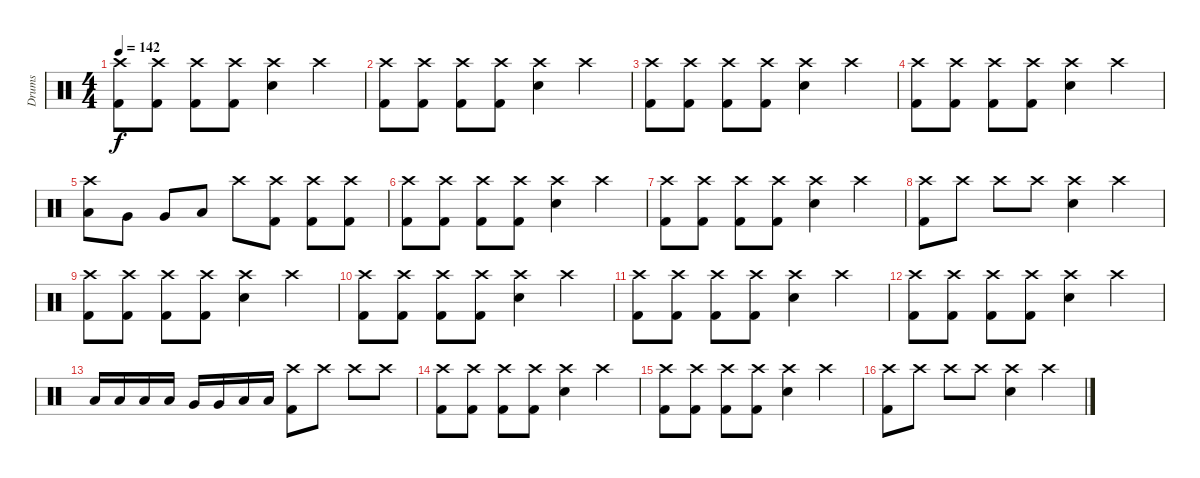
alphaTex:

\track ("Drums" "Drums") {instrument percussion}
\staff {score}
\articulation defaults
\ts (4 4)
\tempo 142
\clef neutral
\ks c
("Crash high (hit)" "Kick (hit) 2").8{dy f} ("Crash high (hit)" "Kick (hit) 2").8 ("Crash high (hit)" "Kick (hit) 2").8 ("Crash high (hit)" "Kick (hit) 2").8 ("Crash high (hit)" "Snare (hit) 2").4 "Crash high (hit)".4 |
("Crash high (hit)" "Kick (hit) 2").8 ("Crash high (hit)" "Kick (hit) 2").8 ("Crash high (hit)" "Kick (hit) 2").8 ("Crash high (hit)" "Kick (hit) 2").8 ("Crash high (hit)" "Snare (hit) 2").4 "Crash high (hit)".4 |
("Crash high (hit)" "Kick (hit) 2").8 ("Crash high (hit)" "Kick (hit) 2").8 ("Crash high (hit)" "Kick (hit) 2").8 ("Crash high (hit)" "Kick (hit) 2").8 ("Crash high (hit)" "Snare (hit) 2").4 "Crash high (hit)".4 |
("Crash high (hit)" "Kick (hit) 2").8 ("Crash high (hit)" "Kick (hit) 2").8 ("Crash high (hit)" "Kick (hit) 2").8 ("Crash high (hit)" "Kick (hit) 2").8 ("Crash high (hit)" "Snare (hit) 2").4 "Crash high (hit)".4 |
("Crash high (hit)" "Low Tom (hit)").8 "Very Low Tom (hit)".8 "Very Low Tom (hit)".8 "Low Floor Tom (hit)".8 "Crash high (hit)".8 ("Crash high (hit)" "Kick (hit) 2").8 ("Crash high (hit)" "Kick (hit) 2").8 ("Crash high (hit)" "Kick (hit) 2").8 |
("Crash high (hit)" "Kick (hit) 2").8 ("Crash high (hit)" "Kick (hit) 2").8 ("Crash high (hit)" "Kick (hit) 2").8 ("Crash high (hit)" "Kick (hit) 2").8 ("Crash high (hit)" "Snare (hit) 2").4 "Crash high (hit)".4 |
("Crash high (hit)" "Kick (hit) 2").8 ("Crash high (hit)" "Kick (hit) 2").8 ("Crash high (hit)" "Kick (hit) 2").8 ("Crash high (hit)" "Kick (hit) 2").8 ("Crash high (hit)" "Snare (hit) 2").4 "Crash high (hit)".4 |
("Crash high (hit)" "Kick (hit) 2").8 "Crash high (hit)".8 "Crash high (hit)".8 "Crash high (hit)".8 ("Crash high (hit)" "Snare (hit) 2").4 "Crash high (hit)".4 |
("Crash high (hit)" "Kick (hit) 2").8 ("Crash high (hit)" "Kick (hit) 2").8 ("Crash high (hit)" "Kick (hit) 2").8 ("Crash high (hit)" "Kick (hit) 2").8 ("Crash high (hit)" "Snare (hit) 2").4 "Crash high (hit)".4 |
("Crash high (hit)" "Kick (hit) 2").8 ("Crash high (hit)" "Kick (hit) 2").8 ("Crash high (hit)" "Kick (hit) 2").8 ("Crash high (hit)" "Kick (hit) 2").8 ("Crash high (hit)" "Snare (hit) 2").4 "Crash high (hit)".4 |
("Crash high (hit)" "Kick (hit) 2").8 ("Crash high (hit)" "Kick (hit) 2").8 ("Crash high (hit)" "Kick (hit) 2").8 ("Crash high (hit)" "Kick (hit) 2").8 ("Crash high (hit)" "Snare (hit) 2").4 "Crash high (hit)".4 |
("Crash high (hit)" "Kick (hit) 2").8 ("Crash high (hit)" "Kick (hit) 2").8 ("Crash high (hit)" "Kick (hit) 2").8 ("Crash high (hit)" "Kick (hit) 2").8 ("Crash high (hit)" "Snare (hit) 2").4 "Crash high (hit)".4 |
"Low Tom (hit)".16 "Low Tom (hit)".16 "Low Tom (hit)".16 "Low Tom (hit)".16 "Very Low Tom (hit)".16 "Very Low Tom (hit)".16 "Low Floor Tom (hit)".16 "Low Floor Tom (hit)".16 ("Crash high (hit)" "Kick (hit) 2").8 "Crash high (hit)".8 "Crash high (hit)".8 "Crash high (hit)".8 |
("Crash high (hit)" "Kick (hit) 2").8 ("Crash high (hit)" "Kick (hit) 2").8 ("Crash high (hit)" "Kick (hit) 2").8 ("Crash high (hit)" "Kick (hit) 2").8 ("Crash high (hit)" "Snare (hit) 2").4 "Crash high (hit)".4 |
("Crash high (hit)" "Kick (hit) 2").8 ("Crash high (hit)" "Kick (hit) 2").8 ("Crash high (hit)" "Kick (hit) 2").8 ("Crash high (hit)" "Kick (hit) 2").8 ("Crash high (hit)" "Snare (hit) 2").4 "Crash high (hit)".4 |
("Crash high (hit)" "Kick (hit) 2").8 "Crash high (hit)".8 "Crash high (hit)".8 "Crash high (hit)".8 ("Crash high (hit)" "Snare (hit) 2").4 "Crash high (hit)".4
